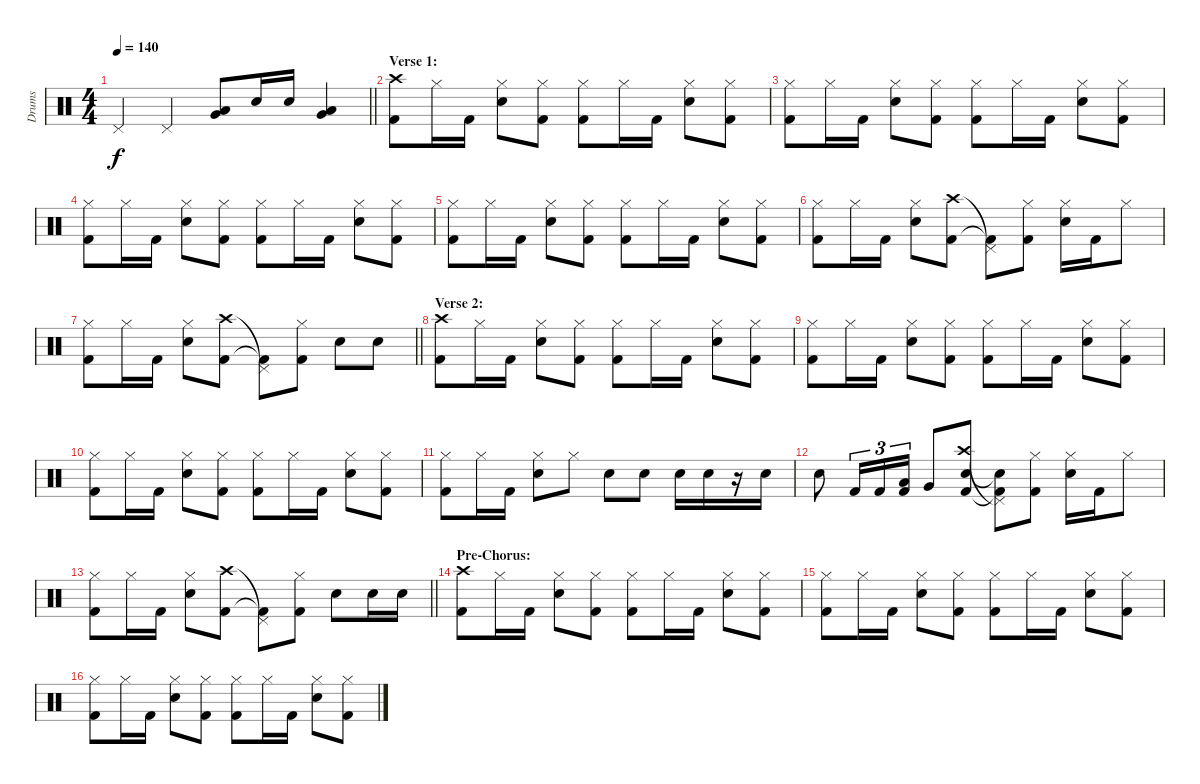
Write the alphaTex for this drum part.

\track ("Drums" "Drums") {instrument percussion}
\staff {score}
\articulation defaults
\ts (4 4)
\tempo 140
\clef neutral
\barLineRight lightlight
\ks c "Pedal Hi-Hat (hit)".4{dy f} "Pedal Hi-Hat (hit)".4
("Low Tom (hit)" "Very Low Tom (hit)").8 "Snare (hit) 2".16 "Snare (hit) 2".16 ("Very Low Tom (hit)" "Low Tom (hit)").4 |
\section ("" "Verse 1:")
("Crash high (hit)" "Kick (hit) 2").8 "Hi-Hat (closed)".16 "Kick (hit) 2".16 ("Hi-Hat (closed)" "Snare (hit) 2").8 ("Hi-Hat (closed)" "Kick (hit) 2").8 ("Hi-Hat (closed)" "Kick (hit) 2").8 "Hi-Hat (closed)".16 "Kick (hit) 2".16 ("Hi-Hat (closed)" "Snare (hit) 2").8 ("Hi-Hat (closed)" "Kick (hit) 2").8 |
("Hi-Hat (closed)" "Kick (hit) 2").8 "Hi-Hat (closed)".16 "Kick (hit) 2".16 ("Hi-Hat (closed)" "Snare (hit) 2").8 ("Hi-Hat (closed)" "Kick (hit) 2").8 ("Hi-Hat (closed)" "Kick (hit) 2").8 "Hi-Hat (closed)".16 "Kick (hit) 2".16 ("Hi-Hat (closed)" "Snare (hit) 2").8 ("Hi-Hat (closed)" "Kick (hit) 2").8 |
("Hi-Hat (closed)" "Kick (hit) 2").8 "Hi-Hat (closed)".16 "Kick (hit) 2".16 ("Hi-Hat (closed)" "Snare (hit) 2").8 ("Hi-Hat (closed)" "Kick (hit) 2").8 ("Hi-Hat (closed)" "Kick (hit) 2").8 "Hi-Hat (closed)".16 "Kick (hit) 2".16 ("Hi-Hat (closed)" "Snare (hit) 2").8 ("Hi-Hat (closed)" "Kick (hit) 2").8 |
("Hi-Hat (closed)" "Kick (hit) 2").8 "Hi-Hat (closed)".16 "Kick (hit) 2".16 ("Hi-Hat (closed)" "Snare (hit) 2").8 ("Hi-Hat (closed)" "Kick (hit) 2").8 ("Hi-Hat (closed)" "Kick (hit) 2").8 "Hi-Hat (closed)".16 "Kick (hit) 2".16 ("Hi-Hat (closed)" "Snare (hit) 2").8 ("Hi-Hat (closed)" "Kick (hit) 2").8 |
("Hi-Hat (closed)" "Kick (hit) 2").8 "Hi-Hat (closed)".16 "Kick (hit) 2".16 ("Hi-Hat (closed)" "Snare (hit) 2").8 ("Crash high (hit)" "Kick (hit) 2").8 ("Pedal Hi-Hat (hit)"{t} "Kick (hit) 2"{t}).8 ("Hi-Hat (closed)" "Kick (hit) 2").8 ("Hi-Hat (closed)" "Snare (hit) 2").16 "Kick (hit) 2".16 "Hi-Hat (closed)".8 |
\barLineRight lightlight
("Hi-Hat (closed)" "Kick (hit) 2").8 "Hi-Hat (closed)".16 "Kick (hit) 2".16 ("Hi-Hat (closed)" "Snare (hit) 2").8 ("Crash high (hit)" "Kick (hit) 2").8 ("Pedal Hi-Hat (hit)"{t} "Kick (hit) 2"{t}).8 ("Hi-Hat (closed)" "Kick (hit) 2").8 "Snare (hit) 2".8 "Snare (hit) 2".8 |
\section ("" "Verse 2:")
("Crash high (hit)" "Kick (hit) 2").8 "Hi-Hat (closed)".16 "Kick (hit) 2".16 ("Hi-Hat (closed)" "Snare (hit) 2").8 ("Hi-Hat (closed)" "Kick (hit) 2").8 ("Hi-Hat (closed)" "Kick (hit) 2").8 "Hi-Hat (closed)".16 "Kick (hit) 2".16 ("Hi-Hat (closed)" "Snare (hit) 2").8 ("Hi-Hat (closed)" "Kick (hit) 2").8 |
("Hi-Hat (closed)" "Kick (hit) 2").8 "Hi-Hat (closed)".16 "Kick (hit) 2".16 ("Hi-Hat (closed)" "Snare (hit) 2").8 ("Hi-Hat (closed)" "Kick (hit) 2").8 ("Hi-Hat (closed)" "Kick (hit) 2").8 "Hi-Hat (closed)".16 "Kick (hit) 2".16 ("Hi-Hat (closed)" "Snare (hit) 2").8 ("Hi-Hat (closed)" "Kick (hit) 2").8 |
("Hi-Hat (closed)" "Kick (hit) 2").8 "Hi-Hat (closed)".16 "Kick (hit) 2".16 ("Hi-Hat (closed)" "Snare (hit) 2").8 ("Hi-Hat (closed)" "Kick (hit) 2").8 ("Hi-Hat (closed)" "Kick (hit) 2").8 "Hi-Hat (closed)".16 "Kick (hit) 2".16 ("Hi-Hat (closed)" "Snare (hit) 2").8 ("Hi-Hat (closed)" "Kick (hit) 2").8 |
("Hi-Hat (closed)" "Kick (hit) 2").8 "Hi-Hat (closed)".16 "Kick (hit) 2".16 ("Hi-Hat (closed)" "Snare (hit) 2").8 "Hi-Hat (closed)".8 "Snare (hit) 2".8 "Snare (hit) 2".8 "Snare (hit) 2".16 "Snare (hit) 2".16 r.16 "Snare (hit) 2".16 |
"Snare (hit) 2".8 "Kick (hit) 2".16{tu (3 2)} "Kick (hit) 2".16{tu (3 2)} ("Low Tom (hit)" "Kick (hit) 2").16{tu (3 2)} "Very Low Tom (hit)".8 ("Crash high (hit)" "Snare (hit) 2" "Kick (hit) 2").8 ("Pedal Hi-Hat (hit)"{t} "Snare (hit)"{t} "Kick (hit) 2"{t}).8 ("Hi-Hat (closed)" "Kick (hit) 2").8 ("Hi-Hat (closed)" "Snare (hit) 2").16 "Kick (hit) 2".16 "Hi-Hat (closed)".8 |
\barLineRight lightlight
("Hi-Hat (closed)" "Kick (hit) 2").8 "Hi-Hat (closed)".16 "Kick (hit) 2".16 ("Hi-Hat (closed)" "Snare (hit) 2").8 ("Crash high (hit)" "Kick (hit) 2").8 ("Pedal Hi-Hat (hit)"{t} "Kick (hit) 2"{t}).8 ("Hi-Hat (closed)" "Kick (hit) 2").8 "Snare (hit) 2".8 "Snare (hit) 2".16 "Snare (hit) 2".16 |
\section ("" "Pre-Chorus:")
("Crash high (hit)" "Kick (hit) 2").8 "Hi-Hat (closed)".16 "Kick (hit) 2".16 ("Hi-Hat (closed)" "Snare (hit) 2").8 ("Hi-Hat (closed)" "Kick (hit) 2").8 ("Hi-Hat (closed)" "Kick (hit) 2").8 "Hi-Hat (closed)".16 "Kick (hit) 2".16 ("Hi-Hat (closed)" "Snare (hit) 2").8 ("Hi-Hat (closed)" "Kick (hit) 2").8 |
("Hi-Hat (closed)" "Kick (hit) 2").8 "Hi-Hat (closed)".16 "Kick (hit) 2".16 ("Hi-Hat (closed)" "Snare (hit) 2").8 ("Hi-Hat (closed)" "Kick (hit) 2").8 ("Hi-Hat (closed)" "Kick (hit) 2").8 "Hi-Hat (closed)".16 "Kick (hit) 2".16 ("Hi-Hat (closed)" "Snare (hit) 2").8 ("Hi-Hat (closed)" "Kick (hit) 2").8 |
("Hi-Hat (closed)" "Kick (hit) 2").8 "Hi-Hat (closed)".16 "Kick (hit) 2".16 ("Hi-Hat (closed)" "Snare (hit) 2").8 ("Hi-Hat (closed)" "Kick (hit) 2").8 ("Hi-Hat (closed)" "Kick (hit) 2").8 "Hi-Hat (closed)".16 "Kick (hit) 2".16 ("Hi-Hat (closed)" "Snare (hit) 2").8 ("Hi-Hat (closed)" "Kick (hit) 2").8
